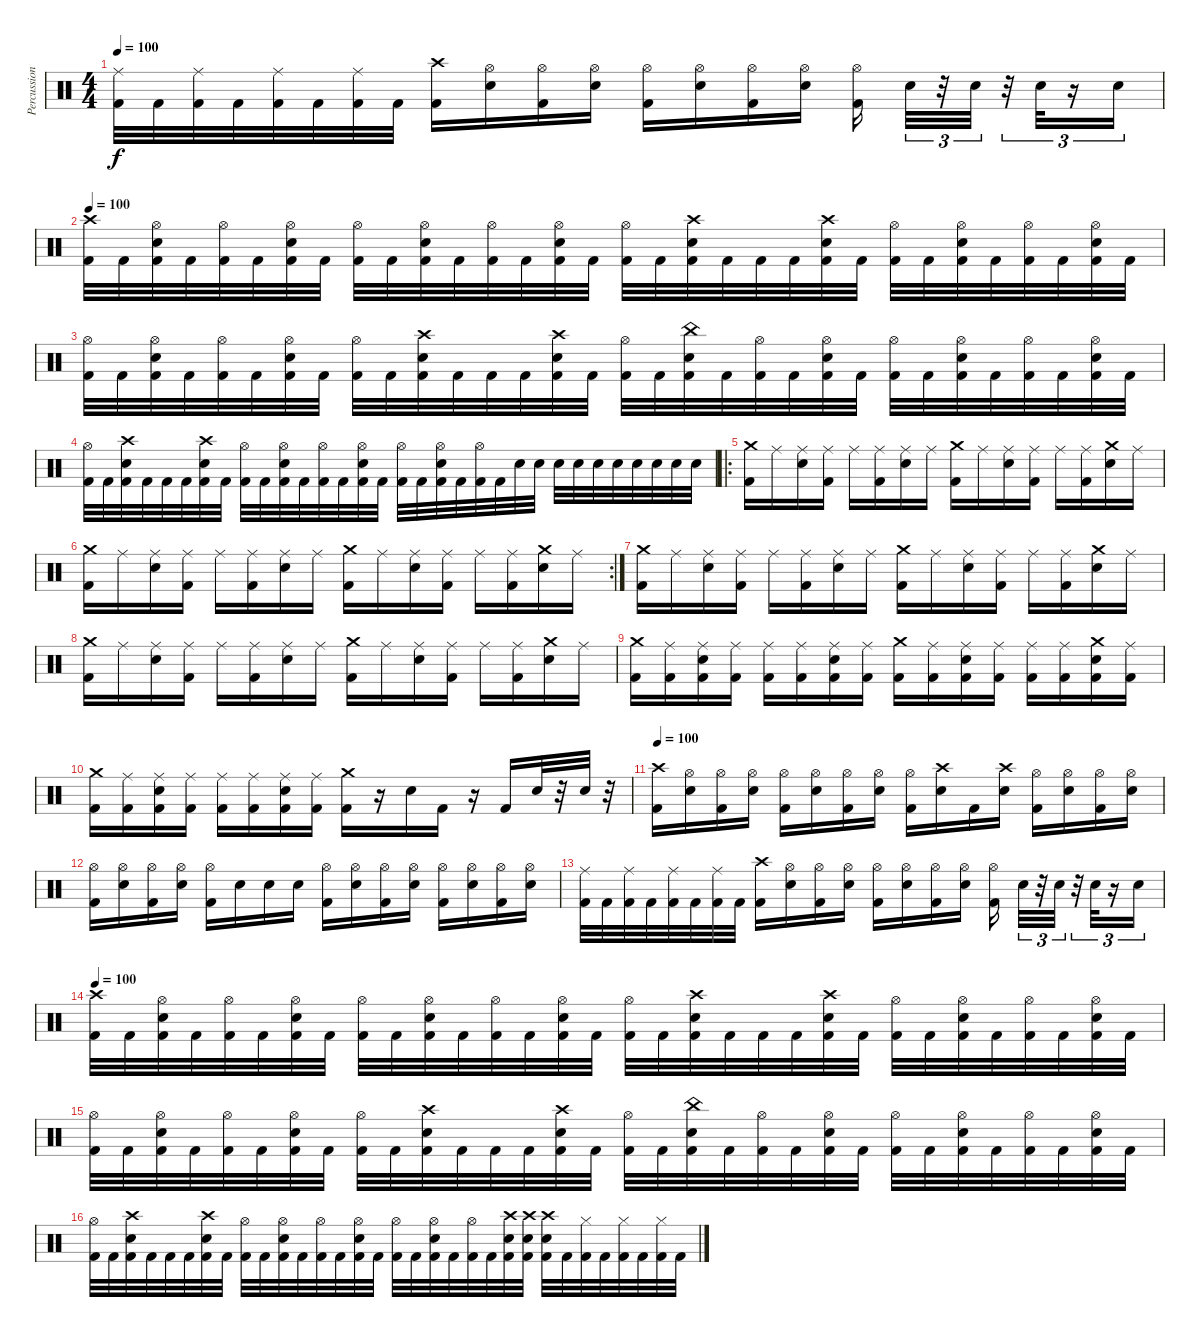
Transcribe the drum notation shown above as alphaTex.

\track ("Percussion" "Percussion") {instrument percussion}
\staff {score}
\articulation defaults
\ts (4 4)
\tempo 100
\clef neutral
\ks c
("Ride (middle)" "Kick (hit) 2").32{dy f} "Kick (hit) 2".32 ("Ride (middle)" "Kick (hit) 2").32 "Kick (hit) 2".32 ("Ride (middle)" "Kick (hit) 2").32 "Kick (hit) 2".32 ("Ride (middle)" "Kick (hit) 2").32 "Kick (hit) 2".32 ("Crash high (hit)" "Kick (hit) 2").16 ("Hi-Hat (open)" "Snare (hit) 2").16 ("Hi-Hat (open)" "Kick (hit) 2").16 ("Hi-Hat (open)" "Snare (hit) 2").16 ("Hi-Hat (open)" "Kick (hit) 2").16 ("Hi-Hat (open)" "Snare (hit) 2").16 ("Hi-Hat (open)" "Kick (hit) 2").16 ("Hi-Hat (open)" "Snare (hit) 2").16 ("Hi-Hat (open)" "Kick (hit) 2").16 "Snare (hit) 2".32{tu (3 2)} r.32{tu (3 2)} "Snare (hit) 2".32{tu (3 2)} r.32{tu (3 2)} "Snare (hit) 2".32{tu (3 2)} r.16{tu (3 2)} "Snare (hit) 2".16{tu (3 2)} |
\tempo 100
("Crash high (hit)" "Kick (hit) 2").32 "Kick (hit) 2".32 ("Hi-Hat (open)" "Snare (hit) 2" "Kick (hit) 2").32 "Kick (hit) 2".32 ("Hi-Hat (open)" "Kick (hit) 2").32 "Kick (hit) 2".32 ("Hi-Hat (open)" "Snare (hit) 2" "Kick (hit) 2").32 "Kick (hit) 2".32 ("Hi-Hat (open)" "Kick (hit) 2").32 "Kick (hit) 2".32 ("Hi-Hat (open)" "Snare (hit) 2" "Kick (hit) 2").32 "Kick (hit) 2".32 ("Hi-Hat (open)" "Kick (hit) 2").32 "Kick (hit) 2".32 ("Hi-Hat (open)" "Snare (hit) 2" "Kick (hit) 2").32 "Kick (hit) 2".32 ("Hi-Hat (open)" "Kick (hit) 2").32 "Kick (hit) 2".32 ("Crash high (hit)" "Snare (hit) 2" "Kick (hit) 2").32 "Kick (hit) 2".32 "Kick (hit) 2".32 "Kick (hit) 2".32 ("Crash high (hit)" "Snare (hit) 2" "Kick (hit) 2").32 "Kick (hit) 2".32 ("Hi-Hat (open)" "Kick (hit) 2").32 "Kick (hit) 2".32 ("Hi-Hat (open)" "Snare (hit) 2" "Kick (hit) 2").32 "Kick (hit) 2".32 ("Hi-Hat (open)" "Kick (hit) 2").32 "Kick (hit) 2".32 ("Hi-Hat (open)" "Snare (hit) 2" "Kick (hit) 2").32 "Kick (hit) 2".32 |
("Hi-Hat (open)" "Kick (hit) 2").32 "Kick (hit) 2".32 ("Hi-Hat (open)" "Snare (hit) 2" "Kick (hit) 2").32 "Kick (hit) 2".32 ("Hi-Hat (open)" "Kick (hit) 2").32 "Kick (hit) 2".32 ("Hi-Hat (open)" "Snare (hit) 2" "Kick (hit) 2").32 "Kick (hit) 2".32 ("Hi-Hat (open)" "Kick (hit) 2").32 "Kick (hit) 2".32 ("Crash high (hit)" "Snare (hit) 2" "Kick (hit) 2").32 "Kick (hit) 2".32 "Kick (hit) 2".32 "Kick (hit) 2".32 ("Crash high (hit)" "Snare (hit) 2" "Kick (hit) 2").32 "Kick (hit) 2".32 ("Hi-Hat (open)" "Kick (hit) 2").32 "Kick (hit) 2".32 ("China (hit)" "Snare (hit) 2" "Kick (hit) 2").32 "Kick (hit) 2".32 ("Hi-Hat (open)" "Kick (hit) 2").32 "Kick (hit) 2".32 ("Hi-Hat (open)" "Snare (hit) 2" "Kick (hit) 2").32 "Kick (hit) 2".32 ("Hi-Hat (open)" "Kick (hit) 2").32 "Kick (hit) 2".32 ("Hi-Hat (open)" "Snare (hit) 2" "Kick (hit) 2").32 "Kick (hit) 2".32 ("Hi-Hat (open)" "Kick (hit) 2").32 "Kick (hit) 2".32 ("Hi-Hat (open)" "Snare (hit) 2" "Kick (hit) 2").32 "Kick (hit) 2".32 |
("Hi-Hat (open)" "Kick (hit) 2").32 "Kick (hit) 2".32 ("Crash high (hit)" "Snare (hit) 2" "Kick (hit) 2").32 "Kick (hit) 2".32 "Kick (hit) 2".32 "Kick (hit) 2".32 ("Crash high (hit)" "Snare (hit) 2" "Kick (hit) 2").32 "Kick (hit) 2".32 ("Hi-Hat (open)" "Kick (hit) 2").32 "Kick (hit) 2".32 ("Hi-Hat (open)" "Snare (hit) 2" "Kick (hit) 2").32 "Kick (hit) 2".32 ("Hi-Hat (open)" "Kick (hit) 2").32 "Kick (hit) 2".32 ("Hi-Hat (open)" "Snare (hit) 2" "Kick (hit) 2").32 "Kick (hit) 2".32 ("Hi-Hat (open)" "Kick (hit) 2").32 "Kick (hit) 2".32 ("Hi-Hat (open)" "Snare (hit) 2" "Kick (hit) 2").32 "Kick (hit) 2".32 ("Hi-Hat (open)" "Kick (hit) 2").32 "Kick (hit) 2".32 "Snare (hit) 2".32 "Snare (hit) 2".32 "Snare (hit) 2".32 "Snare (hit) 2".32 "Snare (hit) 2".32 "Snare (hit) 2".32 "Snare (hit) 2".32 "Snare (hit) 2".32 "Snare (hit) 2".32 "Snare (hit) 2".32 |
\ro
("Crash medium (hit)" "Kick (hit) 2").16 "Ride (middle)".16 ("Ride (middle)" "Snare (hit) 2").16 ("Ride (middle)" "Kick (hit) 2").16 "Ride (middle)".16 ("Ride (middle)" "Kick (hit) 2").16 ("Ride (middle)" "Snare (hit) 2").16 "Ride (middle)".16 ("Crash medium (hit)" "Kick (hit) 2").16 "Ride (middle)".16 ("Ride (middle)" "Snare (hit) 2").16 ("Ride (middle)" "Kick (hit) 2").16 "Ride (middle)".16 ("Ride (middle)" "Kick (hit) 2").16 ("Crash medium (hit)" "Snare (hit) 2").16 "Ride (middle)".16 |
\rc 2
("Crash medium (hit)" "Kick (hit) 2").16 "Ride (middle)".16 ("Ride (middle)" "Snare (hit) 2").16 ("Ride (middle)" "Kick (hit) 2").16 "Ride (middle)".16 ("Ride (middle)" "Kick (hit) 2").16 ("Ride (middle)" "Snare (hit) 2").16 "Ride (middle)".16 ("Crash medium (hit)" "Kick (hit) 2").16 "Ride (middle)".16 ("Ride (middle)" "Snare (hit) 2").16 ("Ride (middle)" "Kick (hit) 2").16 "Ride (middle)".16 ("Ride (middle)" "Kick (hit) 2").16 ("Crash medium (hit)" "Snare (hit) 2").16 "Ride (middle)".16 |
("Crash medium (hit)" "Kick (hit) 2").16 "Ride (middle)".16 ("Ride (middle)" "Snare (hit) 2").16 ("Ride (middle)" "Kick (hit) 2").16 "Ride (middle)".16 ("Ride (middle)" "Kick (hit) 2").16 ("Ride (middle)" "Snare (hit) 2").16 "Ride (middle)".16 ("Crash medium (hit)" "Kick (hit) 2").16 "Ride (middle)".16 ("Ride (middle)" "Snare (hit) 2").16 ("Ride (middle)" "Kick (hit) 2").16 "Ride (middle)".16 ("Ride (middle)" "Kick (hit) 2").16 ("Crash medium (hit)" "Snare (hit) 2").16 "Ride (middle)".16 |
("Crash medium (hit)" "Kick (hit) 2").16 "Ride (middle)".16 ("Ride (middle)" "Snare (hit) 2").16 ("Ride (middle)" "Kick (hit) 2").16 "Ride (middle)".16 ("Ride (middle)" "Kick (hit) 2").16 ("Ride (middle)" "Snare (hit) 2").16 "Ride (middle)".16 ("Crash medium (hit)" "Kick (hit) 2").16 "Ride (middle)".16 ("Ride (middle)" "Snare (hit) 2").16 ("Ride (middle)" "Kick (hit) 2").16 "Ride (middle)".16 ("Ride (middle)" "Kick (hit) 2").16 ("Crash medium (hit)" "Snare (hit) 2").16 "Ride (middle)".16 |
("Crash medium (hit)" "Kick (hit) 2").16 ("Ride (middle)" "Kick (hit) 2").16 ("Ride (middle)" "Snare (hit) 2" "Kick (hit) 2").16 ("Ride (middle)" "Kick (hit) 2").16 ("Ride (middle)" "Kick (hit) 2").16 ("Ride (middle)" "Kick (hit) 2").16 ("Ride (middle)" "Snare (hit) 2" "Kick (hit) 2").16 ("Ride (middle)" "Kick (hit) 2").16 ("Crash medium (hit)" "Kick (hit) 2").16 ("Ride (middle)" "Kick (hit) 2").16 ("Ride (middle)" "Snare (hit) 2" "Kick (hit) 2").16 ("Ride (middle)" "Kick (hit) 2").16 ("Ride (middle)" "Kick (hit) 2").16 ("Ride (middle)" "Kick (hit) 2").16 ("Crash medium (hit)" "Snare (hit) 2" "Kick (hit) 2").16 ("Ride (middle)" "Kick (hit) 2").16 |
("Crash medium (hit)" "Kick (hit) 2").16 ("Ride (middle)" "Kick (hit) 2").16 ("Ride (middle)" "Snare (hit) 2" "Kick (hit) 2").16 ("Ride (middle)" "Kick (hit) 2").16 ("Ride (middle)" "Kick (hit) 2").16 ("Ride (middle)" "Kick (hit) 2").16 ("Ride (middle)" "Snare (hit) 2" "Kick (hit) 2").16 ("Ride (middle)" "Kick (hit) 2").16 ("Crash medium (hit)" "Kick (hit) 2").16 r.16 "Snare (hit) 2".16 "Kick (hit) 2".16 r.16 "Kick (hit) 2".16 "Snare (hit) 2".32 r.32 "Snare (hit) 2".32 r.32 |
\tempo 100
("Crash high (hit)" "Kick (hit) 2").16 ("Hi-Hat (open)" "Snare (hit) 2").16 ("Hi-Hat (open)" "Kick (hit) 2").16 ("Hi-Hat (open)" "Snare (hit) 2").16 ("Hi-Hat (open)" "Kick (hit) 2").16 ("Hi-Hat (open)" "Snare (hit) 2").16 ("Hi-Hat (open)" "Kick (hit) 2").16 ("Hi-Hat (open)" "Snare (hit) 2").16 ("Hi-Hat (open)" "Kick (hit) 2").16 ("Crash high (hit)" "Snare (hit) 2").16 "Kick (hit) 2".16 ("Crash high (hit)" "Snare (hit) 2").16 ("Hi-Hat (open)" "Kick (hit) 2").16 ("Hi-Hat (open)" "Snare (hit) 2").16 ("Hi-Hat (open)" "Kick (hit) 2").16 ("Hi-Hat (open)" "Snare (hit) 2").16 |
("Hi-Hat (open)" "Kick (hit) 2").16 ("Hi-Hat (open)" "Snare (hit) 2").16 ("Hi-Hat (open)" "Kick (hit) 2").16 ("Hi-Hat (open)" "Snare (hit) 2").16 ("Hi-Hat (open)" "Kick (hit) 2").16 "Snare (hit) 2".16 "Snare (hit) 2".16 "Snare (hit) 2".16 ("Hi-Hat (open)" "Kick (hit) 2").16 ("Hi-Hat (open)" "Snare (hit) 2").16 ("Hi-Hat (open)" "Kick (hit) 2").16 ("Hi-Hat (open)" "Snare (hit) 2").16 ("Hi-Hat (open)" "Kick (hit) 2").16 ("Hi-Hat (open)" "Snare (hit) 2").16 ("Hi-Hat (open)" "Kick (hit) 2").16 ("Hi-Hat (open)" "Snare (hit) 2").16 |
("Ride (middle)" "Kick (hit) 2").32 "Kick (hit) 2".32 ("Ride (middle)" "Kick (hit) 2").32 "Kick (hit) 2".32 ("Ride (middle)" "Kick (hit) 2").32 "Kick (hit) 2".32 ("Ride (middle)" "Kick (hit) 2").32 "Kick (hit) 2".32 ("Crash high (hit)" "Kick (hit) 2").16 ("Hi-Hat (open)" "Snare (hit) 2").16 ("Hi-Hat (open)" "Kick (hit) 2").16 ("Hi-Hat (open)" "Snare (hit) 2").16 ("Hi-Hat (open)" "Kick (hit) 2").16 ("Hi-Hat (open)" "Snare (hit) 2").16 ("Hi-Hat (open)" "Kick (hit) 2").16 ("Hi-Hat (open)" "Snare (hit) 2").16 ("Hi-Hat (open)" "Kick (hit) 2").16 "Snare (hit) 2".32{tu (3 2)} r.32{tu (3 2)} "Snare (hit) 2".32{tu (3 2)} r.32{tu (3 2)} "Snare (hit) 2".32{tu (3 2)} r.16{tu (3 2)} "Snare (hit) 2".16{tu (3 2)} |
\tempo 100
("Crash high (hit)" "Kick (hit) 2").32 "Kick (hit) 2".32 ("Hi-Hat (open)" "Snare (hit) 2" "Kick (hit) 2").32 "Kick (hit) 2".32 ("Hi-Hat (open)" "Kick (hit) 2").32 "Kick (hit) 2".32 ("Hi-Hat (open)" "Snare (hit) 2" "Kick (hit) 2").32 "Kick (hit) 2".32 ("Hi-Hat (open)" "Kick (hit) 2").32 "Kick (hit) 2".32 ("Hi-Hat (open)" "Snare (hit) 2" "Kick (hit) 2").32 "Kick (hit) 2".32 ("Hi-Hat (open)" "Kick (hit) 2").32 "Kick (hit) 2".32 ("Hi-Hat (open)" "Snare (hit) 2" "Kick (hit) 2").32 "Kick (hit) 2".32 ("Hi-Hat (open)" "Kick (hit) 2").32 "Kick (hit) 2".32 ("Crash high (hit)" "Snare (hit) 2" "Kick (hit) 2").32 "Kick (hit) 2".32 "Kick (hit) 2".32 "Kick (hit) 2".32 ("Crash high (hit)" "Snare (hit) 2" "Kick (hit) 2").32 "Kick (hit) 2".32 ("Hi-Hat (open)" "Kick (hit) 2").32 "Kick (hit) 2".32 ("Hi-Hat (open)" "Snare (hit) 2" "Kick (hit) 2").32 "Kick (hit) 2".32 ("Hi-Hat (open)" "Kick (hit) 2").32 "Kick (hit) 2".32 ("Hi-Hat (open)" "Snare (hit) 2" "Kick (hit) 2").32 "Kick (hit) 2".32 |
("Hi-Hat (open)" "Kick (hit) 2").32 "Kick (hit) 2".32 ("Hi-Hat (open)" "Snare (hit) 2" "Kick (hit) 2").32 "Kick (hit) 2".32 ("Hi-Hat (open)" "Kick (hit) 2").32 "Kick (hit) 2".32 ("Hi-Hat (open)" "Snare (hit) 2" "Kick (hit) 2").32 "Kick (hit) 2".32 ("Hi-Hat (open)" "Kick (hit) 2").32 "Kick (hit) 2".32 ("Crash high (hit)" "Snare (hit) 2" "Kick (hit) 2").32 "Kick (hit) 2".32 "Kick (hit) 2".32 "Kick (hit) 2".32 ("Crash high (hit)" "Snare (hit) 2" "Kick (hit) 2").32 "Kick (hit) 2".32 ("Hi-Hat (open)" "Kick (hit) 2").32 "Kick (hit) 2".32 ("China (hit)" "Snare (hit) 2" "Kick (hit) 2").32 "Kick (hit) 2".32 ("Hi-Hat (open)" "Kick (hit) 2").32 "Kick (hit) 2".32 ("Hi-Hat (open)" "Snare (hit) 2" "Kick (hit) 2").32 "Kick (hit) 2".32 ("Hi-Hat (open)" "Kick (hit) 2").32 "Kick (hit) 2".32 ("Hi-Hat (open)" "Snare (hit) 2" "Kick (hit) 2").32 "Kick (hit) 2".32 ("Hi-Hat (open)" "Kick (hit) 2").32 "Kick (hit) 2".32 ("Hi-Hat (open)" "Snare (hit) 2" "Kick (hit) 2").32 "Kick (hit) 2".32 |
("Hi-Hat (open)" "Kick (hit) 2").32 "Kick (hit) 2".32 ("Crash high (hit)" "Snare (hit) 2" "Kick (hit) 2").32 "Kick (hit) 2".32 "Kick (hit) 2".32 "Kick (hit) 2".32 ("Crash high (hit)" "Snare (hit) 2" "Kick (hit) 2").32 "Kick (hit) 2".32 ("Hi-Hat (open)" "Kick (hit) 2").32 "Kick (hit) 2".32 ("Hi-Hat (open)" "Snare (hit) 2" "Kick (hit) 2").32 "Kick (hit) 2".32 ("Hi-Hat (open)" "Kick (hit) 2").32 "Kick (hit) 2".32 ("Hi-Hat (open)" "Snare (hit) 2" "Kick (hit) 2").32 "Kick (hit) 2".32 ("Hi-Hat (open)" "Kick (hit) 2").32 "Kick (hit) 2".32 ("Hi-Hat (open)" "Snare (hit) 2" "Kick (hit) 2").32 "Kick (hit) 2".32 ("Hi-Hat (open)" "Kick (hit) 2").32 "Kick (hit) 2".32 ("Crash high (hit)" "Snare (hit) 2" "Kick (hit) 2").32 ("Crash high (hit)" "Snare (hit) 2" "Kick (hit) 2").32 ("Crash high (hit)" "Snare (hit) 2" "Kick (hit) 2").32 "Kick (hit) 2".32 ("Hi-Hat (closed)" "Kick (hit) 2").32 "Kick (hit) 2".32 ("Hi-Hat (closed)" "Kick (hit) 2").32 "Kick (hit) 2".32 ("Hi-Hat (closed)" "Kick (hit) 2").32 "Kick (hit) 2".32
